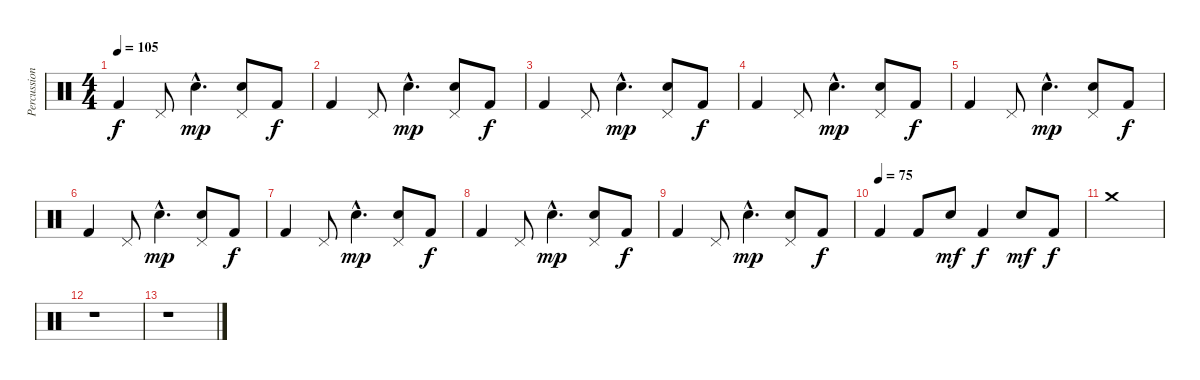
\track ("Percussion" "Percussion") {instrument percussion}
\staff {score}
\articulation defaults
\ts (4 4)
\tempo 105
\clef neutral
\ks c "Kick (hit) 2".4{dy f} "Pedal Hi-Hat (hit)".8 "Hand Clap (hit)"{hac}.4{d dy mp}
("Pedal Hi-Hat (hit)" "Hand Clap (hit)").8 "Kick (hit) 2".8{dy f} |
"Kick (hit) 2".4 "Pedal Hi-Hat (hit)".8 "Hand Clap (hit)"{hac}.4{d dy mp} ("Pedal Hi-Hat (hit)" "Hand Clap (hit)").8 "Kick (hit) 2".8{dy f} |
"Kick (hit) 2".4 "Pedal Hi-Hat (hit)".8 "Hand Clap (hit)"{hac}.4{d dy mp} ("Pedal Hi-Hat (hit)" "Hand Clap (hit)").8 "Kick (hit) 2".8{dy f} |
"Kick (hit) 2".4 "Pedal Hi-Hat (hit)".8 "Hand Clap (hit)"{hac}.4{d dy mp} ("Pedal Hi-Hat (hit)" "Hand Clap (hit)").8 "Kick (hit) 2".8{dy f} |
"Kick (hit) 2".4 "Pedal Hi-Hat (hit)".8 "Hand Clap (hit)"{hac}.4{d dy mp} ("Pedal Hi-Hat (hit)" "Hand Clap (hit)").8 "Kick (hit) 2".8{dy f} |
"Kick (hit) 2".4 "Pedal Hi-Hat (hit)".8 "Hand Clap (hit)"{hac}.4{d dy mp} ("Pedal Hi-Hat (hit)" "Hand Clap (hit)").8 "Kick (hit) 2".8{dy f} |
"Kick (hit) 2".4 "Pedal Hi-Hat (hit)".8 "Hand Clap (hit)"{hac}.4{d dy mp} ("Pedal Hi-Hat (hit)" "Hand Clap (hit)").8 "Kick (hit) 2".8{dy f} |
"Kick (hit) 2".4 "Pedal Hi-Hat (hit)".8 "Hand Clap (hit)"{hac}.4{d dy mp} ("Pedal Hi-Hat (hit)" "Hand Clap (hit)").8 "Kick (hit) 2".8{dy f} |
"Kick (hit) 2".4 "Pedal Hi-Hat (hit)".8 "Hand Clap (hit)"{hac}.4{d dy mp} ("Pedal Hi-Hat (hit)" "Hand Clap (hit)").8 "Kick (hit) 2".8{dy f} |
\tempo (75)
"Kick (hit) 2".4 "Kick (hit) 2".8 "Hand Clap (hit)".8{dy mf} "Kick (hit) 2".4{dy f} "Hand Clap (hit)".8{dy mf} "Kick (hit) 2".8{dy f} |
"Crash medium (hit)".1 |
r.1 |
r.1
